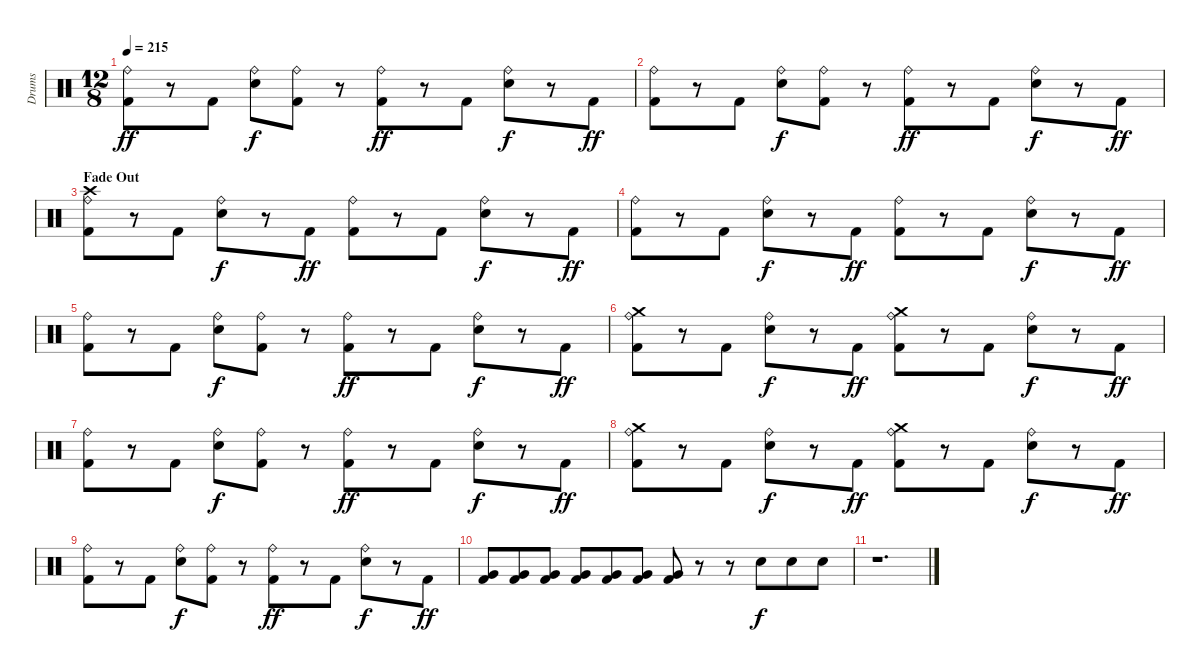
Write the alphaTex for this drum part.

\track ("Drums" "Drums") {instrument percussion}
\staff {score}
\articulation defaults
\ts (12 8)
\tempo 215
\clef neutral
\ks c
("Ride (bell)" "Kick (hit) 2").8{dy ff} r.8 "Kick (hit) 2".8 ("Ride (bell)" "Snare (hit) 2").8{dy f} ("Ride (bell)" "Kick (hit) 2").8 r.8 ("Ride (bell)" "Kick (hit) 2").8{dy ff} r.8 "Kick (hit) 2".8 ("Ride (bell)" "Snare (hit) 2").8{dy f} r.8 "Kick (hit) 2".8{dy ff} |
("Ride (bell)" "Kick (hit) 2").8 r.8 "Kick (hit) 2".8 ("Ride (bell)" "Snare (hit) 2").8{dy f} ("Ride (bell)" "Kick (hit) 2").8 r.8 ("Ride (bell)" "Kick (hit) 2").8{dy ff} r.8 "Kick (hit) 2".8 ("Ride (bell)" "Snare (hit) 2").8{dy f} r.8 "Kick (hit) 2".8{dy ff} |
\section ("" "Fade Out")
("Crash high (hit)" "Ride (bell)" "Kick (hit) 2").8{volume 15} r.8 "Kick (hit) 2".8 ("Ride (bell)" "Snare (hit) 2").8{dy f} r.8 "Kick (hit) 2".8{dy ff} ("Ride (bell)" "Kick (hit) 2").8{volume 14} r.8 "Kick (hit) 2".8 ("Ride (bell)" "Snare (hit) 2").8{dy f} r.8 "Kick (hit) 2".8{dy ff} |
("Ride (bell)" "Kick (hit) 2").8{volume 13} r.8 "Kick (hit) 2".8 ("Ride (bell)" "Snare (hit) 2").8{dy f} r.8 "Kick (hit) 2".8{dy ff} ("Ride (bell)" "Kick (hit) 2").8{volume 12} r.8 "Kick (hit) 2".8 ("Ride (bell)" "Snare (hit) 2").8{dy f} r.8 "Kick (hit) 2".8{dy ff} |
("Ride (bell)" "Kick (hit) 2").8{volume 11} r.8 "Kick (hit) 2".8 ("Ride (bell)" "Snare (hit) 2").8{dy f} ("Ride (bell)" "Kick (hit) 2").8 r.8 ("Ride (bell)" "Kick (hit) 2").8{dy ff volume 10} r.8 "Kick (hit) 2".8 ("Ride (bell)" "Snare (hit) 2").8{dy f} r.8 "Kick (hit) 2".8{dy ff} |
("Crash medium (hit)" "Ride (bell)" "Kick (hit) 2").8{volume 9} r.8 "Kick (hit) 2".8 ("Ride (bell)" "Snare (hit) 2").8{dy f} r.8 "Kick (hit) 2".8{dy ff} ("Crash medium (hit)" "Ride (bell)" "Kick (hit) 2").8{volume 8} r.8 "Kick (hit) 2".8 ("Ride (bell)" "Snare (hit) 2").8{dy f} r.8 "Kick (hit) 2".8{dy ff} |
("Ride (bell)" "Kick (hit) 2").8{volume 7} r.8 "Kick (hit) 2".8 ("Ride (bell)" "Snare (hit) 2").8{dy f} ("Ride (bell)" "Kick (hit) 2").8 r.8 ("Ride (bell)" "Kick (hit) 2").8{dy ff volume 6} r.8 "Kick (hit) 2".8 ("Ride (bell)" "Snare (hit) 2").8{dy f} r.8 "Kick (hit) 2".8{dy ff} |
("Crash medium (hit)" "Ride (bell)" "Kick (hit) 2").8{volume 5} r.8 "Kick (hit) 2".8 ("Ride (bell)" "Snare (hit) 2").8{dy f} r.8 "Kick (hit) 2".8{dy ff} ("Crash medium (hit)" "Ride (bell)" "Kick (hit) 2").8{volume 4} r.8 "Kick (hit) 2".8 ("Ride (bell)" "Snare (hit) 2").8{dy f} r.8 "Kick (hit) 2".8{dy ff} |
("Ride (bell)" "Kick (hit) 2").8{volume 2} r.8 "Kick (hit) 2".8 ("Ride (bell)" "Snare (hit) 2").8{dy f} ("Ride (bell)" "Kick (hit) 2").8 r.8 ("Ride (bell)" "Kick (hit) 2").8{dy ff volume 1} r.8 "Kick (hit) 2".8 ("Ride (bell)" "Snare (hit) 2").8{dy f} r.8 "Kick (hit) 2".8{dy ff} |
("Very Low Tom (hit)" "Kick (hit) 2").8{volume 0} ("Very Low Tom (hit)" "Kick (hit) 2").8 ("Very Low Tom (hit)" "Kick (hit) 2").8 ("Very Low Tom (hit)" "Kick (hit) 2").8 ("Very Low Tom (hit)" "Kick (hit) 2").8 ("Very Low Tom (hit)" "Kick (hit) 2").8 ("Very Low Tom (hit)" "Kick (hit) 2").8 r.8 r.8 "Snare (hit) 2".8{dy f} "Snare (hit) 2".8 "Snare (hit) 2".8 |
r.1{d}
